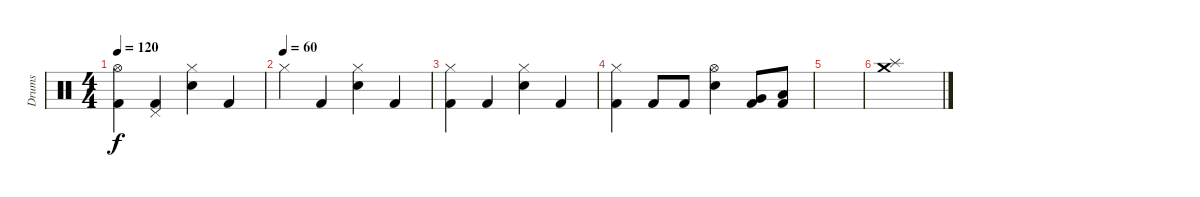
\track ("Drums" "Drums") {instrument percussion}
\staff {score}
\articulation defaults
\ts (4 4)
\tempo 120
\clef neutral
\ks c
("Hi-Hat (open)" "Kick (hit) 2").4{dy f} ("Pedal Hi-Hat (hit)" "Kick (hit) 2").4 ("Hi-Hat (closed)" "Electric Snare (hit)").4 "Kick (hit) 2".4 |
\tempo (60)
"Hi-Hat (closed)".4{volume 8} "Kick (hit) 2".4 ("Hi-Hat (closed)" "Electric Snare (hit)").4 "Kick (hit) 2".4 |
("Hi-Hat (closed)" "Kick (hit) 2").4 "Kick (hit) 2".4 ("Hi-Hat (closed)" "Electric Snare (hit)").4 "Kick (hit) 2".4 |
("Hi-Hat (closed)" "Kick (hit) 2").4 "Kick (hit) 2".8 "Kick (hit) 2".8 ("Hi-Hat (open)" "Electric Snare (hit)").4 ("Very Low Tom (hit)" "Kick (hit) 2").8 ("Low Floor Tom (hit)" "Kick (hit) 2").8 |
|
("Crash medium (hit)" "Splash (hit)").1
